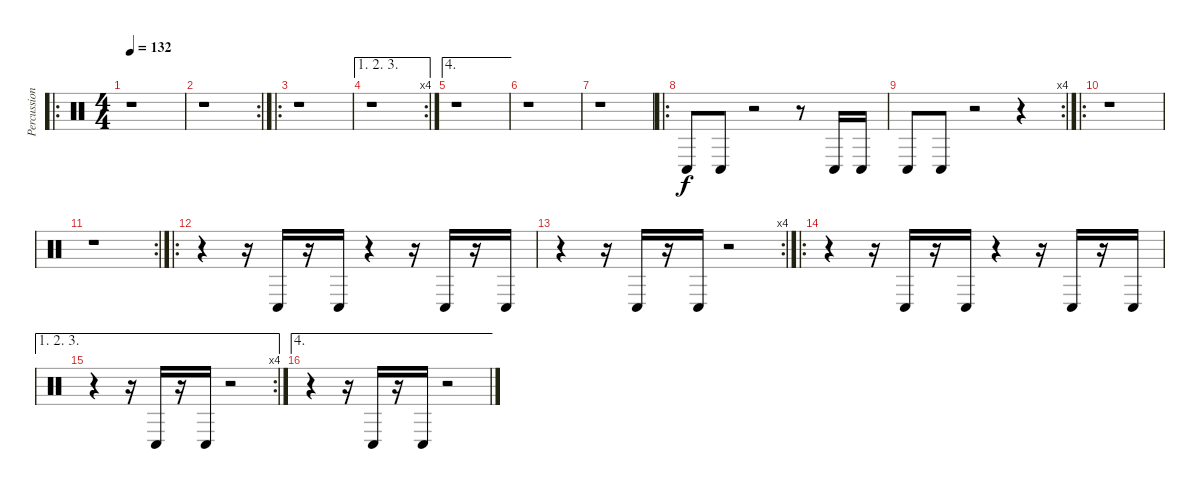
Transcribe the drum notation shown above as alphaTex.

\track ("Percussion Rythm" "Percussion") {instrument percussion}
\staff {score}
\articulation defaults
\ro
\ts (4 4)
\tempo 132
\clef neutral
\ks c
r.1{dy f} |
\rc 2
r.1 |
\ro
r.1 |
\ae (1 2 3)
\rc 4
r.1 |
\ae 4
r.1 |
r.1 |
r.1 |
\ro "Conga low (hit)".8 "Conga low (hit)".8
r.2 r.8 "Conga low (hit)".16 "Conga low (hit)".16 |
\rc 4 "Conga low (hit)".8 "Conga low (hit)".8
r.2 r.4 |
\ro
r.1 |
\rc 2
r.1 |
\ro
r.4 r.16 "Conga low (hit)".16 r.16 "Conga low (hit)".16 r.4 r.16 "Conga low (hit)".16 r.16 "Conga low (hit)".16 |
\rc 4
r.4 r.16 "Conga low (hit)".16 r.16 "Conga low (hit)".16 r.2 |
\ro
r.4 r.16 "Conga low (hit)".16 r.16 "Conga low (hit)".16 r.4 r.16 "Conga low (hit)".16 r.16 "Conga low (hit)".16 |
\ae (1 2 3)
\rc 4
r.4 r.16 "Conga low (hit)".16 r.16 "Conga low (hit)".16 r.2 |
\ae 4
r.4 r.16 "Conga low (hit)".16 r.16 "Conga low (hit)".16 r.2
